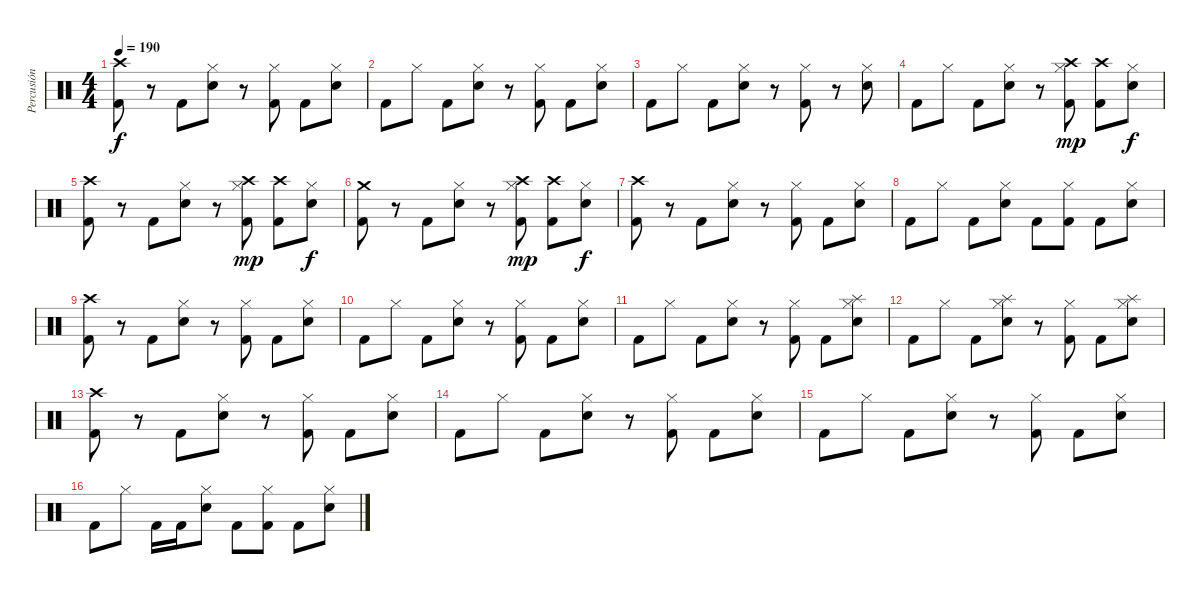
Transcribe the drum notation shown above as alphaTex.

\track ("Percusión" "Percusión") {instrument percussion}
\staff {score}
\articulation defaults
\ts (4 4)
\tempo 190
\clef neutral
\ks c
("Crash high (hit)" "Kick (hit) 2").8{dy f volume 9} r.8 "Kick (hit) 2".8 ("Hi-Hat (closed)" "Snare (hit) 2").8 r.8 ("Hi-Hat (closed)" "Kick (hit) 2").8 "Kick (hit) 2".8 ("Hi-Hat (closed)" "Snare (hit) 2").8 |
"Kick (hit) 2".8 "Hi-Hat (closed)".8 "Kick (hit) 2".8 ("Hi-Hat (closed)" "Snare (hit) 2").8 r.8 ("Hi-Hat (closed)" "Kick (hit) 2").8 "Kick (hit) 2".8 ("Hi-Hat (closed)" "Snare (hit) 2").8 |
"Kick (hit) 2".8 "Hi-Hat (closed)".8 "Kick (hit) 2".8 ("Hi-Hat (closed)" "Snare (hit) 2").8 r.8 ("Hi-Hat (closed)" "Kick (hit) 2").8 r.8 ("Hi-Hat (closed)" "Snare (hit) 2").8 |
"Kick (hit) 2".8 "Hi-Hat (closed)".8 "Kick (hit) 2".8 ("Hi-Hat (closed)" "Snare (hit) 2").8 r.8 ("Hi-Hat (closed)" "Crash high (hit)" "Kick (hit) 2").8{dy mp} ("Crash high (hit)" "Kick (hit) 2").8 ("Hi-Hat (closed)" "Snare (hit) 2").8{dy f} |
("Crash high (hit)" "Kick (hit) 2").8 r.8 "Kick (hit) 2".8 ("Hi-Hat (closed)" "Snare (hit) 2").8 r.8 ("Hi-Hat (closed)" "Crash high (hit)" "Kick (hit) 2").8{dy mp} ("Crash high (hit)" "Kick (hit) 2").8 ("Hi-Hat (closed)" "Snare (hit) 2").8{dy f} |
("Crash medium (hit)" "Kick (hit) 2").8 r.8 "Kick (hit) 2".8 ("Hi-Hat (closed)" "Snare (hit) 2").8 r.8 ("Hi-Hat (closed)" "Crash high (hit)" "Kick (hit) 2").8{dy mp} ("Crash high (hit)" "Kick (hit) 2").8 ("Hi-Hat (closed)" "Snare (hit) 2").8{dy f} |
("Crash high (hit)" "Kick (hit) 2").8 r.8 "Kick (hit) 2".8 ("Hi-Hat (closed)" "Snare (hit) 2").8 r.8 ("Hi-Hat (closed)" "Kick (hit) 2").8 "Kick (hit) 2".8 ("Hi-Hat (closed)" "Snare (hit) 2").8 |
"Kick (hit) 2".8 "Hi-Hat (closed)".8 "Kick (hit) 2".8 ("Hi-Hat (closed)" "Snare (hit) 2").8 "Kick (hit) 2".8 ("Hi-Hat (closed)" "Kick (hit) 2").8 "Kick (hit) 2".8 ("Hi-Hat (closed)" "Snare (hit) 2").8 |
("Crash high (hit)" "Kick (hit) 2").8{volume 7} r.8 "Kick (hit) 2".8 ("Hi-Hat (closed)" "Snare (hit) 2").8 r.8 ("Hi-Hat (closed)" "Kick (hit) 2").8 "Kick (hit) 2".8 ("Hi-Hat (closed)" "Snare (hit) 2").8 |
"Kick (hit) 2".8 "Hi-Hat (closed)".8 "Kick (hit) 2".8 ("Hi-Hat (closed)" "Snare (hit) 2").8 r.8 ("Hi-Hat (closed)" "Kick (hit) 2").8 "Kick (hit) 2".8 ("Hi-Hat (closed)" "Snare (hit) 2").8 |
"Kick (hit) 2".8 "Hi-Hat (closed)".8 "Kick (hit) 2".8 ("Hi-Hat (closed)" "Snare (hit) 2").8 r.8 ("Hi-Hat (closed)" "Kick (hit) 2").8 "Kick (hit) 2".8 ("Hi-Hat (closed)" "Splash (hit)" "Snare (hit) 2").8 |
"Kick (hit) 2".8 "Hi-Hat (closed)".8 "Kick (hit) 2".8 ("Hi-Hat (closed)" "Splash (hit)" "Snare (hit) 2").8 r.8 ("Hi-Hat (closed)" "Kick (hit) 2").8 "Kick (hit) 2".8 ("Hi-Hat (closed)" "Splash (hit)" "Snare (hit) 2").8 |
("Crash high (hit)" "Kick (hit) 2").8 r.8 "Kick (hit) 2".8 ("Hi-Hat (closed)" "Snare (hit) 2").8 r.8 ("Hi-Hat (closed)" "Kick (hit) 2").8 "Kick (hit) 2".8 ("Hi-Hat (closed)" "Snare (hit) 2").8 |
"Kick (hit) 2".8 "Hi-Hat (closed)".8 "Kick (hit) 2".8 ("Hi-Hat (closed)" "Snare (hit) 2").8 r.8 ("Hi-Hat (closed)" "Kick (hit) 2").8 "Kick (hit) 2".8 ("Hi-Hat (closed)" "Snare (hit) 2").8 |
"Kick (hit) 2".8 "Hi-Hat (closed)".8 "Kick (hit) 2".8 ("Hi-Hat (closed)" "Snare (hit) 2").8 r.8 ("Hi-Hat (closed)" "Kick (hit) 2").8 "Kick (hit) 2".8 ("Hi-Hat (closed)" "Snare (hit) 2").8 |
"Kick (hit) 2".8 "Hi-Hat (closed)".8 "Kick (hit) 2".16 "Kick (hit) 2".16 ("Hi-Hat (closed)" "Snare (hit) 2").8 "Kick (hit) 2".8 ("Hi-Hat (closed)" "Kick (hit) 2").8 "Kick (hit) 2".8 ("Hi-Hat (closed)" "Snare (hit) 2").8
